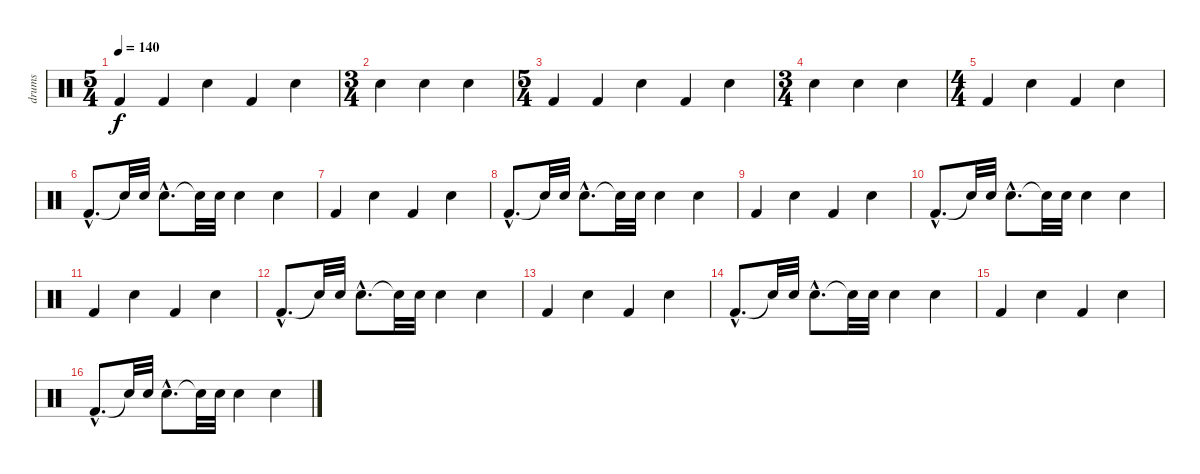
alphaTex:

\track ("drums" "drums") {instrument percussion}
\staff {score}
\articulation defaults
\ts (5 4)
\tempo 140
\clef neutral
\ks c "Kick (hit) 2".4{dy f} "Kick (hit) 2".4 "Snare (hit) 2".4 "Kick (hit) 2".4 "Snare (hit) 2".4
|
\ts (3 4)
"Electric Snare (hit)".4 "Snare (hit) 2".4 "Electric Snare (hit)".4 |
\ts (5 4)
"Kick (hit) 2".4 "Kick (hit) 2".4 "Snare (hit) 2".4 "Kick (hit) 2".4 "Snare (hit) 2".4 |
\ts (3 4)
"Electric Snare (hit)".4 "Snare (hit) 2".4 "Electric Snare (hit)".4 |
\ts (4 4)
"Kick (hit) 2".4 "Snare (hit) 2".4 "Kick (hit) 2".4 "Snare (hit) 2".4 |
"Kick (hit) 2"{hac}.8{d} "Snare (hit)"{t}.32 "Snare (hit) 2".32 "Snare (hit) 2"{hac}.8{d} "Snare (hit)"{t}.32 "Snare (hit) 2".32 "Snare (hit) 2".4 "Snare (hit) 2".4 |
"Kick (hit) 2".4 "Snare (hit) 2".4 "Kick (hit) 2".4 "Snare (hit) 2".4 |
"Kick (hit) 2"{hac}.8{d} "Snare (hit)"{t}.32 "Snare (hit) 2".32 "Snare (hit) 2"{hac}.8{d} "Snare (hit)"{t}.32 "Snare (hit) 2".32 "Snare (hit) 2".4 "Snare (hit) 2".4 |
"Kick (hit) 2".4 "Snare (hit) 2".4 "Kick (hit) 2".4 "Snare (hit) 2".4 |
"Kick (hit) 2"{hac}.8{d} "Snare (hit)"{t}.32 "Snare (hit) 2".32 "Snare (hit) 2"{hac}.8{d} "Snare (hit)"{t}.32 "Snare (hit) 2".32 "Snare (hit) 2".4 "Snare (hit) 2".4 |
"Kick (hit) 2".4 "Snare (hit) 2".4 "Kick (hit) 2".4 "Snare (hit) 2".4 |
"Kick (hit) 2"{hac}.8{d} "Snare (hit)"{t}.32 "Snare (hit) 2".32 "Snare (hit) 2"{hac}.8{d} "Snare (hit)"{t}.32 "Snare (hit) 2".32 "Snare (hit) 2".4 "Snare (hit) 2".4 |
"Kick (hit) 2".4 "Snare (hit) 2".4 "Kick (hit) 2".4 "Snare (hit) 2".4 |
"Kick (hit) 2"{hac}.8{d} "Snare (hit)"{t}.32 "Snare (hit) 2".32 "Snare (hit) 2"{hac}.8{d} "Snare (hit)"{t}.32 "Snare (hit) 2".32 "Snare (hit) 2".4 "Snare (hit) 2".4 |
"Kick (hit) 2".4 "Snare (hit) 2".4 "Kick (hit) 2".4 "Snare (hit) 2".4 |
"Kick (hit) 2"{hac}.8{d} "Snare (hit)"{t}.32 "Snare (hit) 2".32 "Snare (hit) 2"{hac}.8{d} "Snare (hit)"{t}.32 "Snare (hit) 2".32 "Snare (hit) 2".4 "Snare (hit) 2".4
